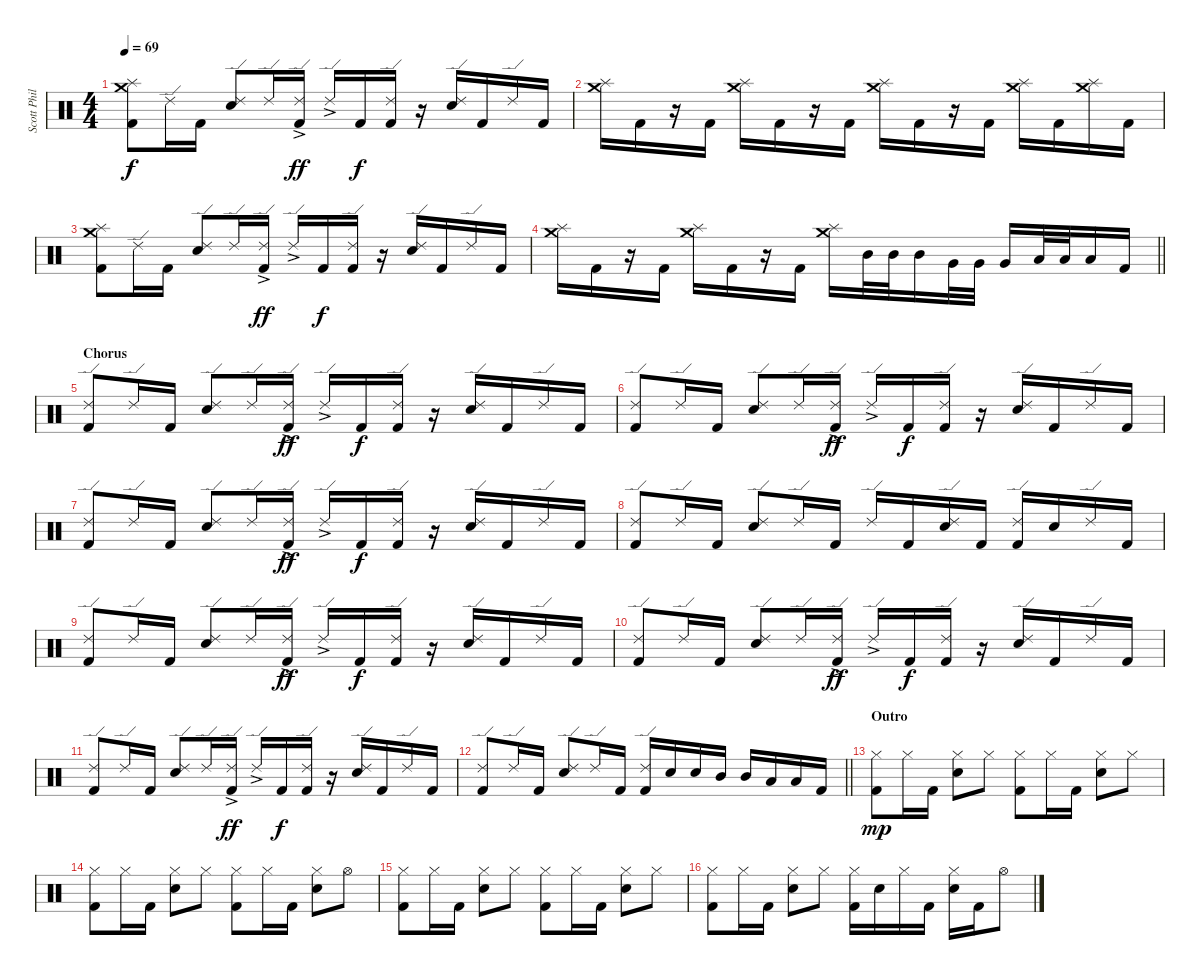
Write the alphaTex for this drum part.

\track ("Scott Phillips" "Scott Phil") {instrument percussion}
\staff {score}
\articulation defaults
\ts (4 4)
\tempo 69
\clef neutral
\ks c
("Crash medium (hit)" "Splash (hit)" "Kick (hit) 2").8{dy f} "Ride (edge) 2".16 "Kick (hit) 2".16 ("Ride (edge) 2" "Electric Snare (hit)").8 "Ride (edge) 2".16 ("Ride (edge) 2"{ac} "Kick (hit) 2").16{dy ff} "Ride (edge) 2"{ac}.16 "Kick (hit) 2".16{dy f} ("Ride (edge) 2" "Kick (hit) 2").16 r.16 ("Ride (edge) 2" "Electric Snare (hit)").16 "Kick (hit) 2".16 "Ride (edge) 2".16 "Kick (hit) 2".16 |
("Crash medium (hit)" "Splash (hit)").16 "Kick (hit) 2".16 r.16 "Kick (hit) 2".16 ("Crash medium (hit)" "Splash (hit)").16 "Kick (hit) 2".16 r.16 "Kick (hit) 2".16 ("Crash medium (hit)" "Splash (hit)").16 "Kick (hit) 2".16 r.16 "Kick (hit) 2".16 ("Crash medium (hit)" "Splash (hit)").16 "Kick (hit) 2".16 ("Crash medium (hit)" "Splash (hit)").16 "Kick (hit) 2".16 |
("Crash medium (hit)" "Splash (hit)" "Kick (hit) 2").8 "Ride (edge) 2".16 "Kick (hit) 2".16 ("Ride (edge) 2" "Electric Snare (hit)").8 "Ride (edge) 2".16 ("Ride (edge) 2"{ac} "Kick (hit) 2").16{dy ff} "Ride (edge) 2"{ac}.16 "Kick (hit) 2".16{dy f} ("Ride (edge) 2" "Kick (hit) 2").16 r.16 ("Ride (edge) 2" "Electric Snare (hit)").16 "Kick (hit) 2".16 "Ride (edge) 2".16 "Kick (hit) 2".16 |
\barLineRight lightlight
("Crash medium (hit)" "Splash (hit)").16 "Kick (hit) 2".16 r.16 "Kick (hit) 2".16 ("Crash medium (hit)" "Splash (hit)").16 "Kick (hit) 2".16 r.16 "Kick (hit) 2".16 ("Crash medium (hit)" "Splash (hit)").16 "Mid Tom (hit)".32 "Mid Tom (hit)".32 "Mid Tom (hit)".16 "Very Low Tom (hit)".32 "Very Low Tom (hit)".32 "Very Low Tom (hit)".16 "Low Floor Tom (hit)".32 "Low Floor Tom (hit)".32 "Low Floor Tom (hit)".16 "Kick (hit) 2".16 |
\section ("" "Chorus")
("Ride (edge) 2" "Kick (hit) 2").8 "Ride (edge) 2".16 "Kick (hit) 2".16 ("Ride (edge) 2" "Electric Snare (hit)").8 "Ride (edge) 2".16 ("Ride (edge) 2"{ac} "Kick (hit) 2").16{dy ff} "Ride (edge) 2"{ac}.16 "Kick (hit) 2".16{dy f} ("Ride (edge) 2" "Kick (hit) 2").16 r.16 ("Ride (edge) 2" "Electric Snare (hit)").16 "Kick (hit) 2".16 "Ride (edge) 2".16 "Kick (hit) 2".16 |
("Ride (edge) 2" "Kick (hit) 2").8 "Ride (edge) 2".16 "Kick (hit) 2".16 ("Ride (edge) 2" "Electric Snare (hit)").8 "Ride (edge) 2".16 ("Ride (edge) 2"{ac} "Kick (hit) 2").16{dy ff} "Ride (edge) 2"{ac}.16 "Kick (hit) 2".16{dy f} ("Ride (edge) 2" "Kick (hit) 2").16 r.16 ("Ride (edge) 2" "Electric Snare (hit)").16 "Kick (hit) 2".16 "Ride (edge) 2".16 "Kick (hit) 2".16 |
("Ride (edge) 2" "Kick (hit) 2").8 "Ride (edge) 2".16 "Kick (hit) 2".16 ("Ride (edge) 2" "Electric Snare (hit)").8 "Ride (edge) 2".16 ("Ride (edge) 2"{ac} "Kick (hit) 2").16{dy ff} "Ride (edge) 2"{ac}.16 "Kick (hit) 2".16{dy f} ("Ride (edge) 2" "Kick (hit) 2").16 r.16 ("Ride (edge) 2" "Electric Snare (hit)").16 "Kick (hit) 2".16 "Ride (edge) 2".16 "Kick (hit) 2".16 |
("Ride (edge) 2" "Kick (hit) 2").8 "Ride (edge) 2".16 "Kick (hit) 2".16 ("Ride (edge) 2" "Electric Snare (hit)").8 "Ride (edge) 2".16 "Kick (hit) 2".16 "Ride (edge) 2".16 "Kick (hit) 2".16 ("Ride (edge) 2" "Electric Snare (hit)").16 "Kick (hit) 2".16 ("Ride (edge) 2" "Kick (hit) 2").16 "Electric Snare (hit)".16 "Ride (edge) 2".16 "Kick (hit) 2".16 |
("Ride (edge) 2" "Kick (hit) 2").8 "Ride (edge) 2".16 "Kick (hit) 2".16 ("Ride (edge) 2" "Electric Snare (hit)").8 "Ride (edge) 2".16 ("Ride (edge) 2"{ac} "Kick (hit) 2").16{dy ff} "Ride (edge) 2"{ac}.16 "Kick (hit) 2".16{dy f} ("Ride (edge) 2" "Kick (hit) 2").16 r.16 ("Ride (edge) 2" "Electric Snare (hit)").16 "Kick (hit) 2".16 "Ride (edge) 2".16 "Kick (hit) 2".16 |
("Ride (edge) 2" "Kick (hit) 2").8 "Ride (edge) 2".16 "Kick (hit) 2".16 ("Ride (edge) 2" "Electric Snare (hit)").8 "Ride (edge) 2".16 ("Ride (edge) 2"{ac} "Kick (hit) 2").16{dy ff} "Ride (edge) 2"{ac}.16 "Kick (hit) 2".16{dy f} ("Ride (edge) 2" "Kick (hit) 2").16 r.16 ("Ride (edge) 2" "Electric Snare (hit)").16 "Kick (hit) 2".16 "Ride (edge) 2".16 "Kick (hit) 2".16 |
("Ride (edge) 2" "Kick (hit) 2").8 "Ride (edge) 2".16 "Kick (hit) 2".16 ("Ride (edge) 2" "Electric Snare (hit)").8 "Ride (edge) 2".16 ("Ride (edge) 2"{ac} "Kick (hit) 2").16{dy ff} "Ride (edge) 2"{ac}.16 "Kick (hit) 2".16{dy f} ("Ride (edge) 2" "Kick (hit) 2").16 r.16 ("Ride (edge) 2" "Electric Snare (hit)").16 "Kick (hit) 2".16 "Ride (edge) 2".16 "Kick (hit) 2".16 |
\barLineRight lightlight
("Ride (edge) 2" "Kick (hit) 2").8 "Ride (edge) 2".16 "Kick (hit) 2".16 ("Ride (edge) 2" "Electric Snare (hit)").8 "Ride (edge) 2".16 "Kick (hit) 2".16 ("Ride (edge) 2" "Kick (hit) 2").16 "Electric Snare (hit)".16 "Electric Snare (hit)".16 "Mid Tom (hit)".16 "Mid Tom (hit)".16 "Low Floor Tom (hit)".16 "Low Floor Tom (hit)".16 "Kick (hit) 2".16 |
\section ("" "Outro")
("Hi-Hat (closed)" "Kick (hit) 2").8{dy mp} "Hi-Hat (closed)".16 "Kick (hit) 2".16 ("Hi-Hat (closed)" "Electric Snare (hit)").8 "Hi-Hat (closed)".8 ("Hi-Hat (closed)" "Kick (hit) 2").8 "Hi-Hat (closed)".16 "Kick (hit) 2".16 ("Hi-Hat (closed)" "Electric Snare (hit)").8 "Hi-Hat (closed)".8 |
("Hi-Hat (closed)" "Kick (hit) 2").8 "Hi-Hat (closed)".16 "Kick (hit) 2".16 ("Hi-Hat (closed)" "Electric Snare (hit)").8 "Hi-Hat (closed)".8 ("Hi-Hat (closed)" "Kick (hit) 2").8 "Hi-Hat (closed)".16 "Kick (hit) 2".16 ("Hi-Hat (closed)" "Electric Snare (hit)").8 "Hi-Hat (open)".8 |
("Hi-Hat (closed)" "Kick (hit) 2").8 "Hi-Hat (closed)".16 "Kick (hit) 2".16 ("Hi-Hat (closed)" "Electric Snare (hit)").8 "Hi-Hat (closed)".8 ("Hi-Hat (closed)" "Kick (hit) 2").8 "Hi-Hat (closed)".16 "Kick (hit) 2".16 ("Hi-Hat (closed)" "Electric Snare (hit)").8 "Hi-Hat (closed)".8 |
("Hi-Hat (closed)" "Kick (hit) 2").8 "Hi-Hat (closed)".16 "Kick (hit) 2".16 ("Hi-Hat (closed)" "Electric Snare (hit)").8 "Hi-Hat (closed)".8 ("Hi-Hat (closed)" "Kick (hit) 2").16 "Electric Snare (hit)".16 "Hi-Hat (closed)".16 "Kick (hit) 2".16 ("Hi-Hat (closed)" "Electric Snare (hit)").16 "Kick (hit) 2".16 "Hi-Hat (open)".8
